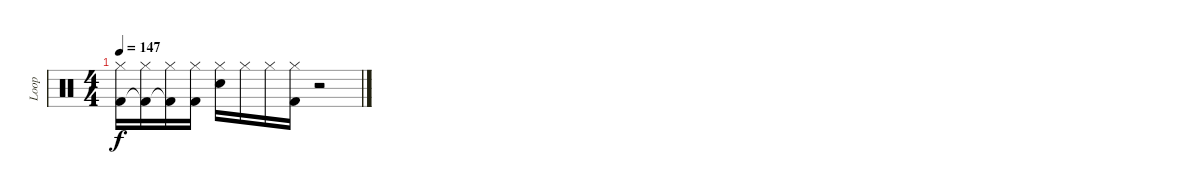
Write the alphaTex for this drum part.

\track ("Loop" "Loop") {instrument percussion}
\staff {score}
\articulation defaults
\ts (4 4)
\tempo 147
\clef neutral
\ks aminor
("Hi-Hat (closed)" "Kick (hit) 2").16{dy f} ("Hi-Hat (closed)" "Kick (hit) 2"{t}).16 ("Hi-Hat (closed)" "Kick (hit) 2"{t}).16 ("Hi-Hat (closed)" "Kick (hit) 2").16 ("Hi-Hat (closed)" "Electric Snare (hit)").16 "Hi-Hat (closed)".16 "Hi-Hat (closed)".16 ("Hi-Hat (closed)" "Kick (hit) 2").16 r.2
